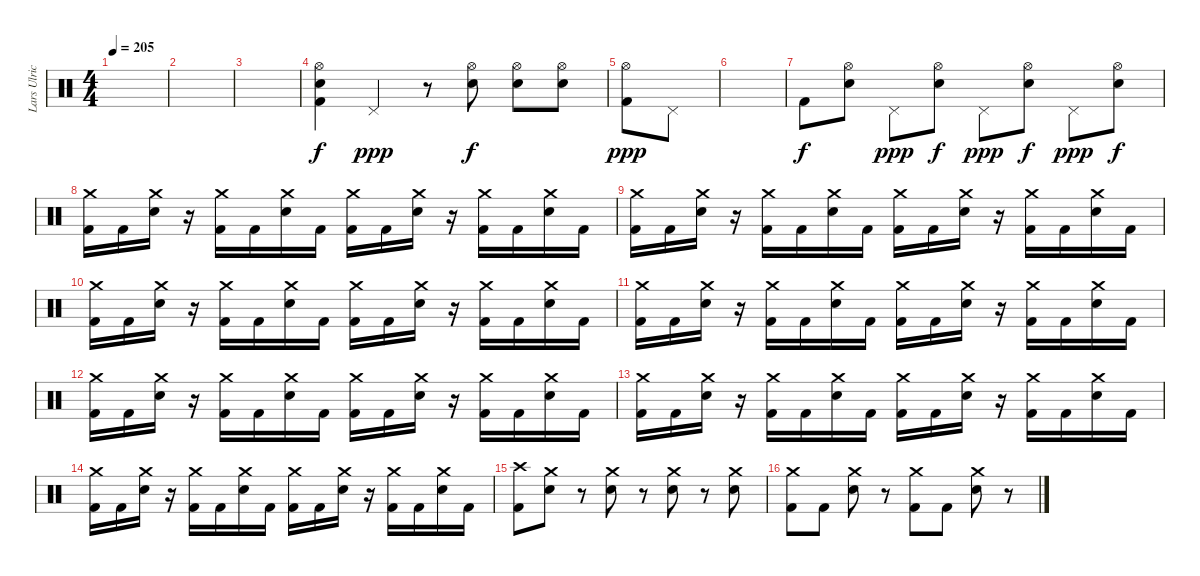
\track ("Lars Ulrich" "Lars Ulric") {instrument percussion}
\staff {score}
\articulation defaults
\ts (4 4)
\tempo 205
\clef neutral
\ks c
|
|
|
("Hi-Hat (open)" "Electric Snare (hit)" "Kick (hit) 2").4{dy f} "Pedal Hi-Hat (hit)".4{dy ppp} r.8 ("Hi-Hat (open)" "Electric Snare (hit)").8{dy f} ("Hi-Hat (open)" "Electric Snare (hit)").8 ("Hi-Hat (open)" "Electric Snare (hit)").8 |
("Hi-Hat (open)" "Kick (hit) 2").8{dy ppp} "Pedal Hi-Hat (hit)".8 |
|
"Kick (hit) 2".8{dy f} ("Hi-Hat (open)" "Electric Snare (hit)").8 "Pedal Hi-Hat (hit)".8{dy ppp} ("Hi-Hat (open)" "Electric Snare (hit)").8{dy f} "Pedal Hi-Hat (hit)".8{dy ppp} ("Hi-Hat (open)" "Electric Snare (hit)").8{dy f} "Pedal Hi-Hat (hit)".8{dy ppp} ("Hi-Hat (open)" "Electric Snare (hit)").8{dy f} |
("Crash medium (hit)" "Kick (hit) 2").16 "Kick (hit) 2".16 ("Crash medium (hit)" "Electric Snare (hit)").16 r.16 ("Crash medium (hit)" "Kick (hit) 2").16 "Kick (hit) 2".16 ("Crash medium (hit)" "Electric Snare (hit)").16 "Kick (hit) 2".16 ("Crash medium (hit)" "Kick (hit) 2").16 "Kick (hit) 2".16 ("Crash medium (hit)" "Electric Snare (hit)").16 r.16 ("Crash medium (hit)" "Kick (hit) 2").16 "Kick (hit) 2".16 ("Crash medium (hit)" "Electric Snare (hit)").16 "Kick (hit) 2".16 |
("Crash medium (hit)" "Kick (hit) 2").16 "Kick (hit) 2".16 ("Crash medium (hit)" "Electric Snare (hit)").16 r.16 ("Crash medium (hit)" "Kick (hit) 2").16 "Kick (hit) 2".16 ("Crash medium (hit)" "Electric Snare (hit)").16 "Kick (hit) 2".16 ("Crash medium (hit)" "Kick (hit) 2").16 "Kick (hit) 2".16 ("Crash medium (hit)" "Electric Snare (hit)").16 r.16 ("Crash medium (hit)" "Kick (hit) 2").16 "Kick (hit) 2".16 ("Crash medium (hit)" "Electric Snare (hit)").16 "Kick (hit) 2".16 |
("Crash medium (hit)" "Kick (hit) 2").16 "Kick (hit) 2".16 ("Crash medium (hit)" "Electric Snare (hit)").16 r.16 ("Crash medium (hit)" "Kick (hit) 2").16 "Kick (hit) 2".16 ("Crash medium (hit)" "Electric Snare (hit)").16 "Kick (hit) 2".16 ("Crash medium (hit)" "Kick (hit) 2").16 "Kick (hit) 2".16 ("Crash medium (hit)" "Electric Snare (hit)").16 r.16 ("Crash medium (hit)" "Kick (hit) 2").16 "Kick (hit) 2".16 ("Crash medium (hit)" "Electric Snare (hit)").16 "Kick (hit) 2".16 |
("Crash medium (hit)" "Kick (hit) 2").16 "Kick (hit) 2".16 ("Crash medium (hit)" "Electric Snare (hit)").16 r.16 ("Crash medium (hit)" "Kick (hit) 2").16 "Kick (hit) 2".16 ("Crash medium (hit)" "Electric Snare (hit)").16 "Kick (hit) 2".16 ("Crash medium (hit)" "Kick (hit) 2").16 "Kick (hit) 2".16 ("Crash medium (hit)" "Electric Snare (hit)").16 r.16 ("Crash medium (hit)" "Kick (hit) 2").16 "Kick (hit) 2".16 ("Crash medium (hit)" "Electric Snare (hit)").16 "Kick (hit) 2".16 |
("Crash medium (hit)" "Kick (hit) 2").16 "Kick (hit) 2".16 ("Crash medium (hit)" "Electric Snare (hit)").16 r.16 ("Crash medium (hit)" "Kick (hit) 2").16 "Kick (hit) 2".16 ("Crash medium (hit)" "Electric Snare (hit)").16 "Kick (hit) 2".16 ("Crash medium (hit)" "Kick (hit) 2").16 "Kick (hit) 2".16 ("Crash medium (hit)" "Electric Snare (hit)").16 r.16 ("Crash medium (hit)" "Kick (hit) 2").16 "Kick (hit) 2".16 ("Crash medium (hit)" "Electric Snare (hit)").16 "Kick (hit) 2".16 |
("Crash medium (hit)" "Kick (hit) 2").16 "Kick (hit) 2".16 ("Crash medium (hit)" "Electric Snare (hit)").16 r.16 ("Crash medium (hit)" "Kick (hit) 2").16 "Kick (hit) 2".16 ("Crash medium (hit)" "Electric Snare (hit)").16 "Kick (hit) 2".16 ("Crash medium (hit)" "Kick (hit) 2").16 "Kick (hit) 2".16 ("Crash medium (hit)" "Electric Snare (hit)").16 r.16 ("Crash medium (hit)" "Kick (hit) 2").16 "Kick (hit) 2".16 ("Crash medium (hit)" "Electric Snare (hit)").16 "Kick (hit) 2".16 |
("Crash medium (hit)" "Kick (hit) 2").16 "Kick (hit) 2".16 ("Crash medium (hit)" "Electric Snare (hit)").16 r.16 ("Crash medium (hit)" "Kick (hit) 2").16 "Kick (hit) 2".16 ("Crash medium (hit)" "Electric Snare (hit)").16 "Kick (hit) 2".16 ("Crash medium (hit)" "Kick (hit) 2").16 "Kick (hit) 2".16 ("Crash medium (hit)" "Electric Snare (hit)").16 r.16 ("Crash medium (hit)" "Kick (hit) 2").16 "Kick (hit) 2".16 ("Crash medium (hit)" "Electric Snare (hit)").16 "Kick (hit) 2".16 |
("Crash high (hit)" "Kick (hit) 2").8 ("Crash medium (hit)" "Electric Snare (hit)").8 r.8 ("Crash medium (hit)" "Electric Snare (hit)").8 r.8 ("Crash medium (hit)" "Electric Snare (hit)").8 r.8 ("Crash medium (hit)" "Electric Snare (hit)").8 |
("Crash medium (hit)" "Kick (hit) 2").8 "Kick (hit) 2".8 ("Crash medium (hit)" "Electric Snare (hit)").8 r.8 ("Crash medium (hit)" "Kick (hit) 2").8 "Kick (hit) 2".8 ("Crash medium (hit)" "Electric Snare (hit)").8 r.8
